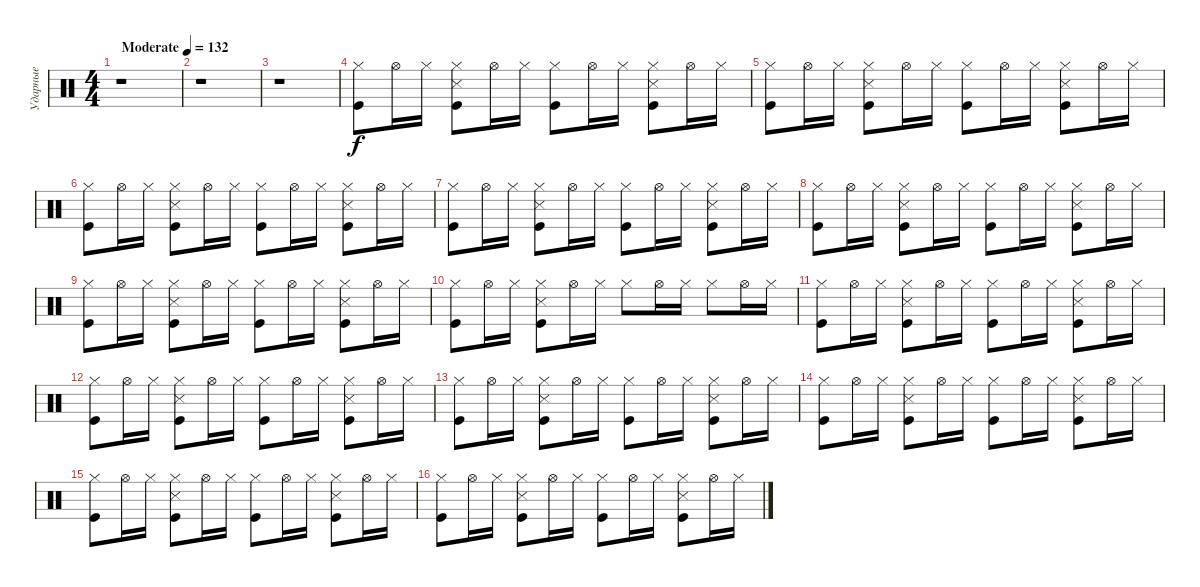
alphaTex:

\track ("Ударные" "Ударные") {instrument percussion}
\staff {score}
\articulation defaults
\ts (4 4)
\tempo (132 "Moderate")
\clef neutral
\ks c
r.1{dy f} |
r.1 |
r.1 |
("Kick (hit)" "Hi-Hat (closed)").8 "Hi-Hat (open)".16 "Hi-Hat (closed)".16 ("Hi-Hat (closed)" "Kick (hit)" "Snare (side stick) 3").8 "Hi-Hat (open)".16 "Hi-Hat (closed)".16 ("Kick (hit)" "Hi-Hat (closed)").8 "Hi-Hat (open)".16 "Hi-Hat (closed)".16 ("Hi-Hat (closed)" "Kick (hit)" "Snare (side stick) 3").8 "Hi-Hat (open)".16 "Hi-Hat (closed)".16 |
("Kick (hit)" "Hi-Hat (closed)").8 "Hi-Hat (open)".16 "Hi-Hat (closed)".16 ("Hi-Hat (closed)" "Kick (hit)" "Snare (side stick) 3").8 "Hi-Hat (open)".16 "Hi-Hat (closed)".16 ("Kick (hit)" "Hi-Hat (closed)").8 "Hi-Hat (open)".16 "Hi-Hat (closed)".16 ("Hi-Hat (closed)" "Kick (hit)" "Snare (side stick) 3").8 "Hi-Hat (open)".16 "Hi-Hat (closed)".16 |
("Kick (hit)" "Hi-Hat (closed)").8 "Hi-Hat (open)".16 "Hi-Hat (closed)".16 ("Hi-Hat (closed)" "Kick (hit)" "Snare (side stick) 3").8 "Hi-Hat (open)".16 "Hi-Hat (closed)".16 ("Kick (hit)" "Hi-Hat (closed)").8 "Hi-Hat (open)".16 "Hi-Hat (closed)".16 ("Hi-Hat (closed)" "Kick (hit)" "Snare (side stick) 3").8 "Hi-Hat (open)".16 "Hi-Hat (closed)".16 |
("Kick (hit)" "Hi-Hat (closed)").8 "Hi-Hat (open)".16 "Hi-Hat (closed)".16 ("Hi-Hat (closed)" "Kick (hit)" "Snare (side stick) 3").8 "Hi-Hat (open)".16 "Hi-Hat (closed)".16 ("Kick (hit)" "Hi-Hat (closed)").8 "Hi-Hat (open)".16 "Hi-Hat (closed)".16 ("Hi-Hat (closed)" "Kick (hit)" "Snare (side stick) 3").8 "Hi-Hat (open)".16 "Hi-Hat (closed)".16 |
("Kick (hit)" "Hi-Hat (closed)").8 "Hi-Hat (open)".16 "Hi-Hat (closed)".16 ("Hi-Hat (closed)" "Kick (hit)" "Snare (side stick) 3").8 "Hi-Hat (open)".16 "Hi-Hat (closed)".16 ("Kick (hit)" "Hi-Hat (closed)").8 "Hi-Hat (open)".16 "Hi-Hat (closed)".16 ("Hi-Hat (closed)" "Kick (hit)" "Snare (side stick) 3").8 "Hi-Hat (open)".16 "Hi-Hat (closed)".16 |
("Kick (hit)" "Hi-Hat (closed)").8 "Hi-Hat (open)".16 "Hi-Hat (closed)".16 ("Hi-Hat (closed)" "Kick (hit)" "Snare (side stick) 3").8 "Hi-Hat (open)".16 "Hi-Hat (closed)".16 ("Kick (hit)" "Hi-Hat (closed)").8 "Hi-Hat (open)".16 "Hi-Hat (closed)".16 ("Hi-Hat (closed)" "Kick (hit)" "Snare (side stick) 3").8 "Hi-Hat (open)".16 "Hi-Hat (closed)".16 |
("Kick (hit)" "Hi-Hat (closed)").8 "Hi-Hat (open)".16 "Hi-Hat (closed)".16 ("Hi-Hat (closed)" "Kick (hit)" "Snare (side stick) 3").8 "Hi-Hat (open)".16 "Hi-Hat (closed)".16 "Hi-Hat (closed)".8 "Hi-Hat (open)".16 "Hi-Hat (closed)".16 "Hi-Hat (closed)".8 "Hi-Hat (open)".16 "Hi-Hat (closed)".16 |
("Kick (hit)" "Hi-Hat (closed)").8 "Hi-Hat (open)".16 "Hi-Hat (closed)".16 ("Hi-Hat (closed)" "Kick (hit)" "Snare (side stick) 3").8 "Hi-Hat (open)".16 "Hi-Hat (closed)".16 ("Kick (hit)" "Hi-Hat (closed)").8 "Hi-Hat (open)".16 "Hi-Hat (closed)".16 ("Hi-Hat (closed)" "Kick (hit)" "Snare (side stick) 3").8 "Hi-Hat (open)".16 "Hi-Hat (closed)".16 |
("Kick (hit)" "Hi-Hat (closed)").8 "Hi-Hat (open)".16 "Hi-Hat (closed)".16 ("Hi-Hat (closed)" "Kick (hit)" "Snare (side stick) 3").8 "Hi-Hat (open)".16 "Hi-Hat (closed)".16 ("Kick (hit)" "Hi-Hat (closed)").8 "Hi-Hat (open)".16 "Hi-Hat (closed)".16 ("Hi-Hat (closed)" "Kick (hit)" "Snare (side stick) 3").8 "Hi-Hat (open)".16 "Hi-Hat (closed)".16 |
("Kick (hit)" "Hi-Hat (closed)").8 "Hi-Hat (open)".16 "Hi-Hat (closed)".16 ("Hi-Hat (closed)" "Kick (hit)" "Snare (side stick) 3").8 "Hi-Hat (open)".16 "Hi-Hat (closed)".16 ("Kick (hit)" "Hi-Hat (closed)").8 "Hi-Hat (open)".16 "Hi-Hat (closed)".16 ("Hi-Hat (closed)" "Kick (hit)" "Snare (side stick) 3").8 "Hi-Hat (open)".16 "Hi-Hat (closed)".16 |
("Kick (hit)" "Hi-Hat (closed)").8 "Hi-Hat (open)".16 "Hi-Hat (closed)".16 ("Hi-Hat (closed)" "Kick (hit)" "Snare (side stick) 3").8 "Hi-Hat (open)".16 "Hi-Hat (closed)".16 ("Kick (hit)" "Hi-Hat (closed)").8 "Hi-Hat (open)".16 "Hi-Hat (closed)".16 ("Hi-Hat (closed)" "Kick (hit)" "Snare (side stick) 3").8 "Hi-Hat (open)".16 "Hi-Hat (closed)".16 |
("Kick (hit)" "Hi-Hat (closed)").8 "Hi-Hat (open)".16 "Hi-Hat (closed)".16 ("Hi-Hat (closed)" "Kick (hit)" "Snare (side stick) 3").8 "Hi-Hat (open)".16 "Hi-Hat (closed)".16 ("Kick (hit)" "Hi-Hat (closed)").8 "Hi-Hat (open)".16 "Hi-Hat (closed)".16 ("Hi-Hat (closed)" "Kick (hit)" "Snare (side stick) 3").8 "Hi-Hat (open)".16 "Hi-Hat (closed)".16 |
("Kick (hit)" "Hi-Hat (closed)").8 "Hi-Hat (open)".16 "Hi-Hat (closed)".16 ("Hi-Hat (closed)" "Kick (hit)" "Snare (side stick) 3").8 "Hi-Hat (open)".16 "Hi-Hat (closed)".16 ("Kick (hit)" "Hi-Hat (closed)").8 "Hi-Hat (open)".16 "Hi-Hat (closed)".16 ("Hi-Hat (closed)" "Kick (hit)" "Snare (side stick) 3").8 "Hi-Hat (open)".16 "Hi-Hat (closed)".16
